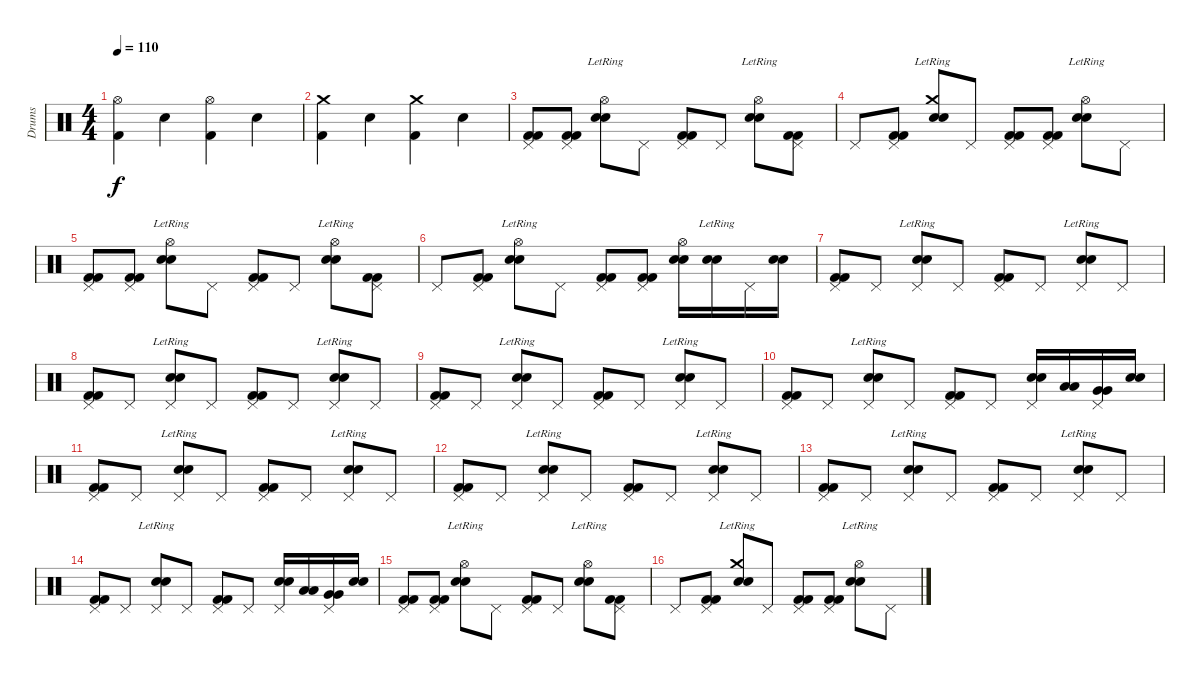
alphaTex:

\track ("Drums" "Drums") {instrument percussion}
\staff {score}
\articulation defaults
\ts (4 4)
\tempo 110
\clef neutral
\ks c
("Hi-Hat (open)" "Kick (hit) 2").4{dy f} "Electric Snare (hit)".4 ("Hi-Hat (open)" "Kick (hit) 2").4 "Electric Snare (hit)".4 |
("Crash medium (hit)" "Kick (hit) 2").4 "Electric Snare (hit)".4 ("Crash medium (hit)" "Kick (hit) 2").4 "Electric Snare (hit)".4 |
("Pedal Hi-Hat (hit)" "Kick (hit) 2" "Kick (hit) 2").8 ("Pedal Hi-Hat (hit)" "Kick (hit) 2" "Kick (hit) 2").8 ("Hi-Hat (open)" "Electric Snare (hit)"{lr} "Snare (hit) 2").8 "Pedal Hi-Hat (hit)".8 ("Pedal Hi-Hat (hit)" "Kick (hit) 2" "Kick (hit) 2").8 "Pedal Hi-Hat (hit)".8 ("Hi-Hat (open)" "Electric Snare (hit)"{lr} "Snare (hit) 2").8 ("Pedal Hi-Hat (hit)" "Kick (hit) 2" "Kick (hit) 2").8 |
"Pedal Hi-Hat (hit)".8 ("Pedal Hi-Hat (hit)" "Kick (hit) 2" "Kick (hit) 2").8 ("Crash medium (hit)" "Electric Snare (hit)"{lr} "Snare (hit) 2").8 "Pedal Hi-Hat (hit)".8 ("Pedal Hi-Hat (hit)" "Kick (hit) 2" "Kick (hit) 2").8 ("Pedal Hi-Hat (hit)" "Kick (hit) 2" "Kick (hit) 2").8 ("Hi-Hat (open)" "Electric Snare (hit)"{lr} "Snare (hit) 2").8 "Pedal Hi-Hat (hit)".8 |
("Pedal Hi-Hat (hit)" "Kick (hit) 2" "Kick (hit) 2").8 ("Pedal Hi-Hat (hit)" "Kick (hit) 2" "Kick (hit) 2").8 ("Hi-Hat (open)" "Electric Snare (hit)"{lr} "Snare (hit) 2").8 "Pedal Hi-Hat (hit)".8 ("Pedal Hi-Hat (hit)" "Kick (hit) 2" "Kick (hit) 2").8 "Pedal Hi-Hat (hit)".8 ("Hi-Hat (open)" "Electric Snare (hit)"{lr} "Snare (hit) 2").8 ("Pedal Hi-Hat (hit)" "Kick (hit) 2" "Kick (hit) 2").8 |
"Pedal Hi-Hat (hit)".8 ("Pedal Hi-Hat (hit)" "Kick (hit) 2" "Kick (hit) 2").8 ("Hi-Hat (open)" "Electric Snare (hit)"{lr} "Snare (hit) 2").8 "Pedal Hi-Hat (hit)".8 ("Pedal Hi-Hat (hit)" "Kick (hit) 2" "Kick (hit) 2").8 ("Pedal Hi-Hat (hit)" "Kick (hit) 2" "Kick (hit) 2").8 ("Hi-Hat (open)" "Electric Snare (hit)" "Snare (hit) 2").16 ("Electric Snare (hit)"{lr} "Snare (hit) 2").16 "Pedal Hi-Hat (hit)".16 ("Electric Snare (hit)" "Snare (hit) 2").16 |
("Pedal Hi-Hat (hit)" "Kick (hit) 2" "Kick (hit) 2").8 "Pedal Hi-Hat (hit)".8 ("Pedal Hi-Hat (hit)" "Electric Snare (hit)"{lr} "Snare (hit) 2").8 "Pedal Hi-Hat (hit)".8 ("Pedal Hi-Hat (hit)" "Kick (hit) 2" "Kick (hit) 2").8 "Pedal Hi-Hat (hit)".8 ("Pedal Hi-Hat (hit)" "Electric Snare (hit)"{lr} "Snare (hit) 2").8 "Pedal Hi-Hat (hit)".8 |
("Pedal Hi-Hat (hit)" "Kick (hit) 2" "Kick (hit) 2").8 "Pedal Hi-Hat (hit)".8 ("Pedal Hi-Hat (hit)" "Electric Snare (hit)"{lr} "Snare (hit) 2").8 "Pedal Hi-Hat (hit)".8 ("Pedal Hi-Hat (hit)" "Kick (hit) 2" "Kick (hit) 2").8 "Pedal Hi-Hat (hit)".8 ("Pedal Hi-Hat (hit)" "Electric Snare (hit)"{lr} "Snare (hit) 2").8 "Pedal Hi-Hat (hit)".8 |
("Pedal Hi-Hat (hit)" "Kick (hit) 2" "Kick (hit) 2").8 "Pedal Hi-Hat (hit)".8 ("Pedal Hi-Hat (hit)" "Electric Snare (hit)"{lr} "Snare (hit) 2").8 "Pedal Hi-Hat (hit)".8 ("Pedal Hi-Hat (hit)" "Kick (hit) 2" "Kick (hit) 2").8 "Pedal Hi-Hat (hit)".8 ("Pedal Hi-Hat (hit)" "Electric Snare (hit)"{lr} "Snare (hit) 2").8 "Pedal Hi-Hat (hit)".8 |
("Pedal Hi-Hat (hit)" "Kick (hit) 2" "Kick (hit) 2").8 "Pedal Hi-Hat (hit)".8 ("Pedal Hi-Hat (hit)" "Electric Snare (hit)"{lr} "Snare (hit) 2").8 "Pedal Hi-Hat (hit)".8 ("Pedal Hi-Hat (hit)" "Kick (hit) 2" "Kick (hit) 2").8 "Pedal Hi-Hat (hit)".8 ("Pedal Hi-Hat (hit)" "Electric Snare (hit)" "Snare (hit) 2").16 ("Low Tom (hit)" "Low Tom (hit)").16 ("Pedal Hi-Hat (hit)" "Very Low Tom (hit)" "Very Low Tom (hit)").16 ("Electric Snare (hit)" "Snare (hit) 2").16 |
("Pedal Hi-Hat (hit)" "Kick (hit) 2" "Kick (hit) 2").8 "Pedal Hi-Hat (hit)".8 ("Pedal Hi-Hat (hit)" "Electric Snare (hit)"{lr} "Snare (hit) 2").8 "Pedal Hi-Hat (hit)".8 ("Pedal Hi-Hat (hit)" "Kick (hit) 2" "Kick (hit) 2").8 "Pedal Hi-Hat (hit)".8 ("Pedal Hi-Hat (hit)" "Electric Snare (hit)"{lr} "Snare (hit) 2").8 "Pedal Hi-Hat (hit)".8 |
("Pedal Hi-Hat (hit)" "Kick (hit) 2" "Kick (hit) 2").8 "Pedal Hi-Hat (hit)".8 ("Pedal Hi-Hat (hit)" "Electric Snare (hit)"{lr} "Snare (hit) 2").8 "Pedal Hi-Hat (hit)".8 ("Pedal Hi-Hat (hit)" "Kick (hit) 2" "Kick (hit) 2").8 "Pedal Hi-Hat (hit)".8 ("Pedal Hi-Hat (hit)" "Electric Snare (hit)"{lr} "Snare (hit) 2").8 "Pedal Hi-Hat (hit)".8 |
("Pedal Hi-Hat (hit)" "Kick (hit) 2" "Kick (hit) 2").8 "Pedal Hi-Hat (hit)".8 ("Pedal Hi-Hat (hit)" "Electric Snare (hit)"{lr} "Snare (hit) 2").8 "Pedal Hi-Hat (hit)".8 ("Pedal Hi-Hat (hit)" "Kick (hit) 2" "Kick (hit) 2").8 "Pedal Hi-Hat (hit)".8 ("Pedal Hi-Hat (hit)" "Electric Snare (hit)"{lr} "Snare (hit) 2").8 "Pedal Hi-Hat (hit)".8 |
("Pedal Hi-Hat (hit)" "Kick (hit) 2" "Kick (hit) 2").8 "Pedal Hi-Hat (hit)".8 ("Pedal Hi-Hat (hit)" "Electric Snare (hit)"{lr} "Snare (hit) 2").8 "Pedal Hi-Hat (hit)".8 ("Pedal Hi-Hat (hit)" "Kick (hit) 2" "Kick (hit) 2").8 "Pedal Hi-Hat (hit)".8 ("Pedal Hi-Hat (hit)" "Electric Snare (hit)" "Snare (hit) 2").16 ("Low Tom (hit)" "Low Tom (hit)").16 ("Pedal Hi-Hat (hit)" "Very Low Tom (hit)" "Very Low Tom (hit)").16 ("Electric Snare (hit)" "Snare (hit) 2").16 |
("Pedal Hi-Hat (hit)" "Kick (hit) 2" "Kick (hit) 2").8 ("Pedal Hi-Hat (hit)" "Kick (hit) 2" "Kick (hit) 2").8 ("Hi-Hat (open)" "Electric Snare (hit)"{lr} "Snare (hit) 2").8 "Pedal Hi-Hat (hit)".8 ("Pedal Hi-Hat (hit)" "Kick (hit) 2" "Kick (hit) 2").8 "Pedal Hi-Hat (hit)".8 ("Hi-Hat (open)" "Electric Snare (hit)"{lr} "Snare (hit) 2").8 ("Pedal Hi-Hat (hit)" "Kick (hit) 2" "Kick (hit) 2").8 |
"Pedal Hi-Hat (hit)".8 ("Pedal Hi-Hat (hit)" "Kick (hit) 2" "Kick (hit) 2").8 ("Crash medium (hit)" "Electric Snare (hit)"{lr} "Snare (hit) 2").8 "Pedal Hi-Hat (hit)".8 ("Pedal Hi-Hat (hit)" "Kick (hit) 2" "Kick (hit) 2").8 ("Pedal Hi-Hat (hit)" "Kick (hit) 2" "Kick (hit) 2").8 ("Hi-Hat (open)" "Electric Snare (hit)"{lr} "Snare (hit) 2").8 "Pedal Hi-Hat (hit)".8
